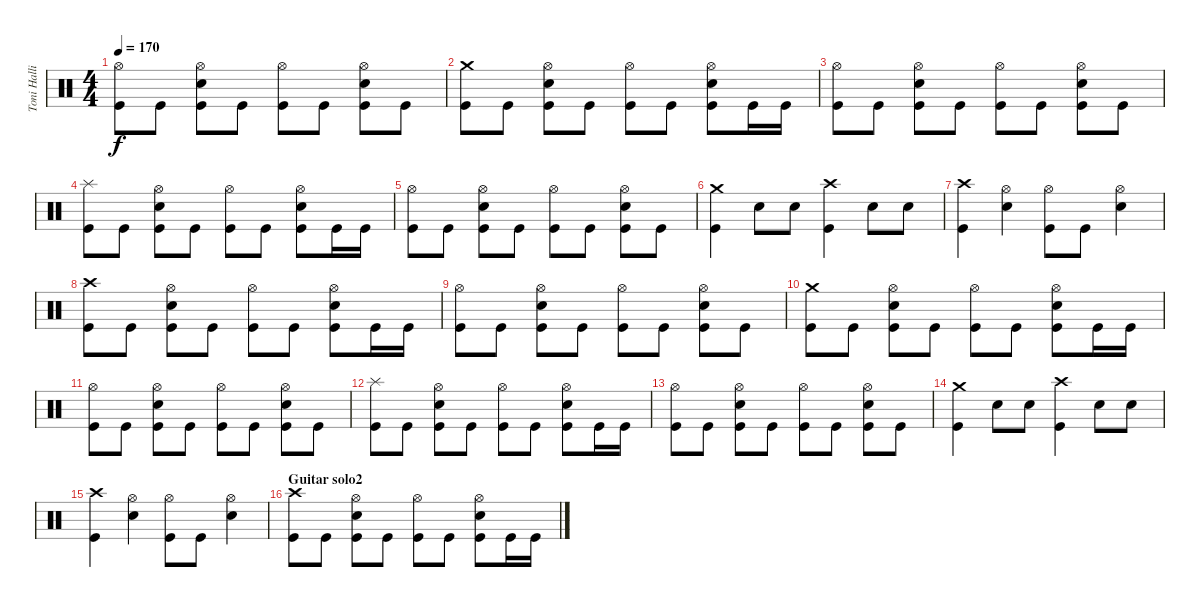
\track ("Toni Hallio" "Toni Halli") {instrument percussion}
\staff {score}
\articulation defaults
\ts (4 4)
\tempo 170
\clef neutral
\ks c
("Hi-Hat (open)" "Kick (hit)").8{dy f} "Kick (hit)".8 ("Hi-Hat (open)" "Snare (hit) 2" "Kick (hit)").8 "Kick (hit)".8 ("Hi-Hat (open)" "Kick (hit)").8 "Kick (hit)".8 ("Hi-Hat (open)" "Snare (hit) 2" "Kick (hit)").8 "Kick (hit)".8 |
("Crash medium (hit)" "Kick (hit)").8 "Kick (hit)".8 ("Hi-Hat (open)" "Snare (hit) 2" "Kick (hit)").8 "Kick (hit)".8 ("Hi-Hat (open)" "Kick (hit)").8 "Kick (hit)".8 ("Hi-Hat (open)" "Snare (hit) 2" "Kick (hit)").8 "Kick (hit)".16 "Kick (hit)".16 |
("Hi-Hat (open)" "Kick (hit)").8 "Kick (hit)".8 ("Hi-Hat (open)" "Snare (hit) 2" "Kick (hit)").8 "Kick (hit)".8 ("Hi-Hat (open)" "Kick (hit)").8 "Kick (hit)".8 ("Hi-Hat (open)" "Snare (hit) 2" "Kick (hit)").8 "Kick (hit)".8 |
("Splash (hit)" "Kick (hit)").8 "Kick (hit)".8 ("Hi-Hat (open)" "Snare (hit) 2" "Kick (hit)").8 "Kick (hit)".8 ("Hi-Hat (open)" "Kick (hit)").8 "Kick (hit)".8 ("Hi-Hat (open)" "Snare (hit) 2" "Kick (hit)").8 "Kick (hit)".16 "Kick (hit)".16 |
("Hi-Hat (open)" "Kick (hit)").8 "Kick (hit)".8 ("Hi-Hat (open)" "Snare (hit) 2" "Kick (hit)").8 "Kick (hit)".8 ("Hi-Hat (open)" "Kick (hit)").8 "Kick (hit)".8 ("Hi-Hat (open)" "Snare (hit) 2" "Kick (hit)").8 "Kick (hit)".8 |
("Crash medium (hit)" "Kick (hit)").4 "Snare (hit) 2".8 "Snare (hit) 2".8 ("Crash high (hit)" "Kick (hit)").4 "Snare (hit) 2".8 "Snare (hit) 2".8 |
("Crash high (hit)" "Kick (hit)").4 ("Hi-Hat (open)" "Snare (hit) 2").4 ("Hi-Hat (open)" "Kick (hit)").8 "Kick (hit)".8 ("Hi-Hat (open)" "Snare (hit) 2").4 |
("Crash high (hit)" "Kick (hit)").8 "Kick (hit)".8 ("Hi-Hat (open)" "Snare (hit) 2" "Kick (hit)").8 "Kick (hit)".8 ("Hi-Hat (open)" "Kick (hit)").8 "Kick (hit)".8 ("Hi-Hat (open)" "Snare (hit) 2" "Kick (hit)").8 "Kick (hit)".16 "Kick (hit)".16 |
("Hi-Hat (open)" "Kick (hit)").8 "Kick (hit)".8 ("Hi-Hat (open)" "Snare (hit) 2" "Kick (hit)").8 "Kick (hit)".8 ("Hi-Hat (open)" "Kick (hit)").8 "Kick (hit)".8 ("Hi-Hat (open)" "Snare (hit) 2" "Kick (hit)").8 "Kick (hit)".8 |
("Crash medium (hit)" "Kick (hit)").8 "Kick (hit)".8 ("Hi-Hat (open)" "Snare (hit) 2" "Kick (hit)").8 "Kick (hit)".8 ("Hi-Hat (open)" "Kick (hit)").8 "Kick (hit)".8 ("Hi-Hat (open)" "Snare (hit) 2" "Kick (hit)").8 "Kick (hit)".16 "Kick (hit)".16 |
("Hi-Hat (open)" "Kick (hit)").8 "Kick (hit)".8 ("Hi-Hat (open)" "Snare (hit) 2" "Kick (hit)").8 "Kick (hit)".8 ("Hi-Hat (open)" "Kick (hit)").8 "Kick (hit)".8 ("Hi-Hat (open)" "Snare (hit) 2" "Kick (hit)").8 "Kick (hit)".8 |
("Splash (hit)" "Kick (hit)").8 "Kick (hit)".8 ("Hi-Hat (open)" "Snare (hit) 2" "Kick (hit)").8 "Kick (hit)".8 ("Hi-Hat (open)" "Kick (hit)").8 "Kick (hit)".8 ("Hi-Hat (open)" "Snare (hit) 2" "Kick (hit)").8 "Kick (hit)".16 "Kick (hit)".16 |
("Hi-Hat (open)" "Kick (hit)").8 "Kick (hit)".8 ("Hi-Hat (open)" "Snare (hit) 2" "Kick (hit)").8 "Kick (hit)".8 ("Hi-Hat (open)" "Kick (hit)").8 "Kick (hit)".8 ("Hi-Hat (open)" "Snare (hit) 2" "Kick (hit)").8 "Kick (hit)".8 |
("Crash medium (hit)" "Kick (hit)").4 "Snare (hit) 2".8 "Snare (hit) 2".8 ("Crash high (hit)" "Kick (hit)").4 "Snare (hit) 2".8 "Snare (hit) 2".8 |
("Crash high (hit)" "Kick (hit)").4 ("Hi-Hat (open)" "Snare (hit) 2").4 ("Hi-Hat (open)" "Kick (hit)").8 "Kick (hit)".8 ("Hi-Hat (open)" "Snare (hit) 2").4 |
\section ("" "Guitar solo2")
("Crash high (hit)" "Kick (hit)").8 "Kick (hit)".8 ("Hi-Hat (open)" "Snare (hit) 2" "Kick (hit)").8 "Kick (hit)".8 ("Hi-Hat (open)" "Kick (hit)").8 "Kick (hit)".8 ("Hi-Hat (open)" "Snare (hit) 2" "Kick (hit)").8 "Kick (hit)".16 "Kick (hit)".16
